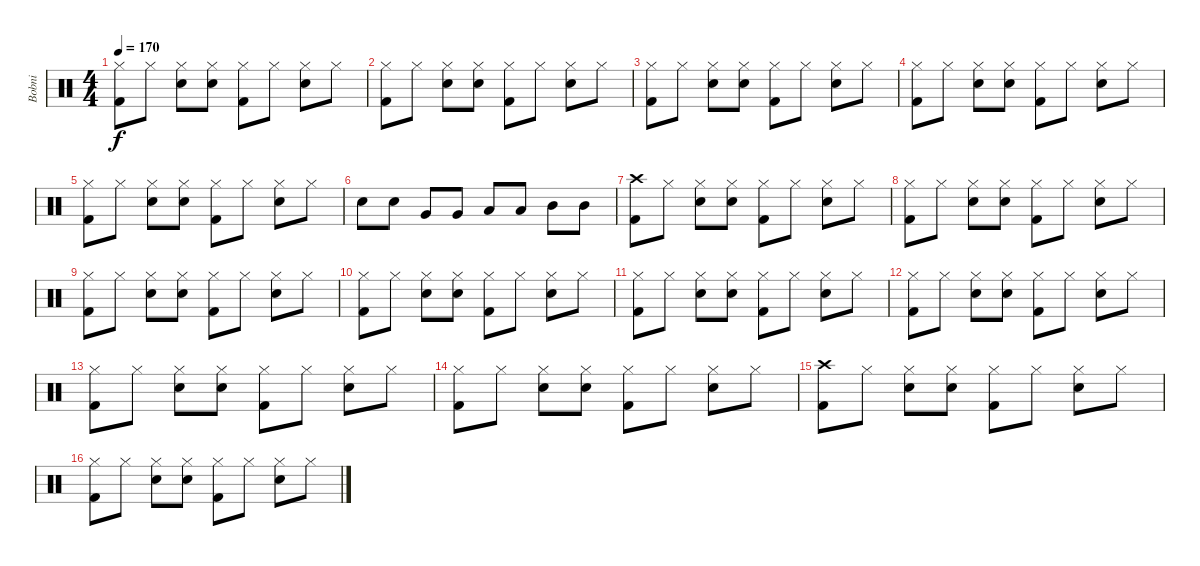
\track ("Bobni" "Bobni") {instrument percussion}
\staff {score}
\articulation defaults
\ts (4 4)
\tempo 170
\clef neutral
\ks c
("Hi-Hat (closed)" "Kick (hit) 2").8{dy f} "Hi-Hat (closed)".8 ("Hi-Hat (closed)" "Snare (hit) 2").8 ("Hi-Hat (closed)" "Snare (hit) 2").8 ("Hi-Hat (closed)" "Kick (hit) 2").8 "Hi-Hat (closed)".8 ("Hi-Hat (closed)" "Snare (hit) 2").8 "Hi-Hat (closed)".8 |
("Hi-Hat (closed)" "Kick (hit) 2").8 "Hi-Hat (closed)".8 ("Hi-Hat (closed)" "Snare (hit) 2").8 ("Hi-Hat (closed)" "Snare (hit) 2").8 ("Hi-Hat (closed)" "Kick (hit) 2").8 "Hi-Hat (closed)".8 ("Hi-Hat (closed)" "Snare (hit) 2").8 "Hi-Hat (closed)".8 |
("Hi-Hat (closed)" "Kick (hit) 2").8 "Hi-Hat (closed)".8 ("Hi-Hat (closed)" "Snare (hit) 2").8 ("Hi-Hat (closed)" "Snare (hit) 2").8 ("Hi-Hat (closed)" "Kick (hit) 2").8 "Hi-Hat (closed)".8 ("Hi-Hat (closed)" "Snare (hit) 2").8 "Hi-Hat (closed)".8 |
("Hi-Hat (closed)" "Kick (hit) 2").8 "Hi-Hat (closed)".8 ("Hi-Hat (closed)" "Snare (hit) 2").8 ("Hi-Hat (closed)" "Snare (hit) 2").8 ("Hi-Hat (closed)" "Kick (hit) 2").8 "Hi-Hat (closed)".8 ("Hi-Hat (closed)" "Snare (hit) 2").8 "Hi-Hat (closed)".8 |
("Hi-Hat (closed)" "Kick (hit) 2").8 "Hi-Hat (closed)".8 ("Hi-Hat (closed)" "Snare (hit) 2").8 ("Hi-Hat (closed)" "Snare (hit) 2").8 ("Hi-Hat (closed)" "Kick (hit) 2").8 "Hi-Hat (closed)".8 ("Hi-Hat (closed)" "Snare (hit) 2").8 "Hi-Hat (closed)".8 |
"Snare (hit) 2".8 "Snare (hit) 2".8 "Very Low Tom (hit)".8 "Very Low Tom (hit)".8 "Low Tom (hit)".8 "Low Tom (hit)".8 "Mid Tom (hit)".8 "Mid Tom (hit)".8 |
("Crash high (hit)" "Kick (hit) 2").8 "Hi-Hat (closed)".8 ("Hi-Hat (closed)" "Snare (hit) 2").8 ("Hi-Hat (closed)" "Snare (hit) 2").8 ("Hi-Hat (closed)" "Kick (hit) 2").8 "Hi-Hat (closed)".8 ("Hi-Hat (closed)" "Snare (hit) 2").8 "Hi-Hat (closed)".8 |
("Hi-Hat (closed)" "Kick (hit) 2").8 "Hi-Hat (closed)".8 ("Hi-Hat (closed)" "Snare (hit) 2").8 ("Hi-Hat (closed)" "Snare (hit) 2").8 ("Hi-Hat (closed)" "Kick (hit) 2").8 "Hi-Hat (closed)".8 ("Hi-Hat (closed)" "Snare (hit) 2").8 "Hi-Hat (closed)".8 |
("Hi-Hat (closed)" "Kick (hit) 2").8 "Hi-Hat (closed)".8 ("Hi-Hat (closed)" "Snare (hit) 2").8 ("Hi-Hat (closed)" "Snare (hit) 2").8 ("Hi-Hat (closed)" "Kick (hit) 2").8 "Hi-Hat (closed)".8 ("Hi-Hat (closed)" "Snare (hit) 2").8 "Hi-Hat (closed)".8 |
("Hi-Hat (closed)" "Kick (hit) 2").8 "Hi-Hat (closed)".8 ("Hi-Hat (closed)" "Snare (hit) 2").8 ("Hi-Hat (closed)" "Snare (hit) 2").8 ("Hi-Hat (closed)" "Kick (hit) 2").8 "Hi-Hat (closed)".8 ("Hi-Hat (closed)" "Snare (hit) 2").8 "Hi-Hat (closed)".8 |
("Hi-Hat (closed)" "Kick (hit) 2").8 "Hi-Hat (closed)".8 ("Hi-Hat (closed)" "Snare (hit) 2").8 ("Hi-Hat (closed)" "Snare (hit) 2").8 ("Hi-Hat (closed)" "Kick (hit) 2").8 "Hi-Hat (closed)".8 ("Hi-Hat (closed)" "Snare (hit) 2").8 "Hi-Hat (closed)".8 |
("Hi-Hat (closed)" "Kick (hit) 2").8 "Hi-Hat (closed)".8 ("Hi-Hat (closed)" "Snare (hit) 2").8 ("Hi-Hat (closed)" "Snare (hit) 2").8 ("Hi-Hat (closed)" "Kick (hit) 2").8 "Hi-Hat (closed)".8 ("Hi-Hat (closed)" "Snare (hit) 2").8 "Hi-Hat (closed)".8 |
("Hi-Hat (closed)" "Kick (hit) 2").8 "Hi-Hat (closed)".8 ("Hi-Hat (closed)" "Snare (hit) 2").8 ("Hi-Hat (closed)" "Snare (hit) 2").8 ("Hi-Hat (closed)" "Kick (hit) 2").8 "Hi-Hat (closed)".8 ("Hi-Hat (closed)" "Snare (hit) 2").8 "Hi-Hat (closed)".8 |
("Hi-Hat (closed)" "Kick (hit) 2").8 "Hi-Hat (closed)".8 ("Hi-Hat (closed)" "Snare (hit) 2").8 ("Hi-Hat (closed)" "Snare (hit) 2").8 ("Hi-Hat (closed)" "Kick (hit) 2").8 "Hi-Hat (closed)".8 ("Hi-Hat (closed)" "Snare (hit) 2").8 "Hi-Hat (closed)".8 |
("Crash high (hit)" "Kick (hit) 2").8 "Hi-Hat (closed)".8 ("Hi-Hat (closed)" "Snare (hit) 2").8 ("Hi-Hat (closed)" "Snare (hit) 2").8 ("Hi-Hat (closed)" "Kick (hit) 2").8 "Hi-Hat (closed)".8 ("Hi-Hat (closed)" "Snare (hit) 2").8 "Hi-Hat (closed)".8 |
("Hi-Hat (closed)" "Kick (hit) 2").8 "Hi-Hat (closed)".8 ("Hi-Hat (closed)" "Snare (hit) 2").8 ("Hi-Hat (closed)" "Snare (hit) 2").8 ("Hi-Hat (closed)" "Kick (hit) 2").8 "Hi-Hat (closed)".8 ("Hi-Hat (closed)" "Snare (hit) 2").8 "Hi-Hat (closed)".8
